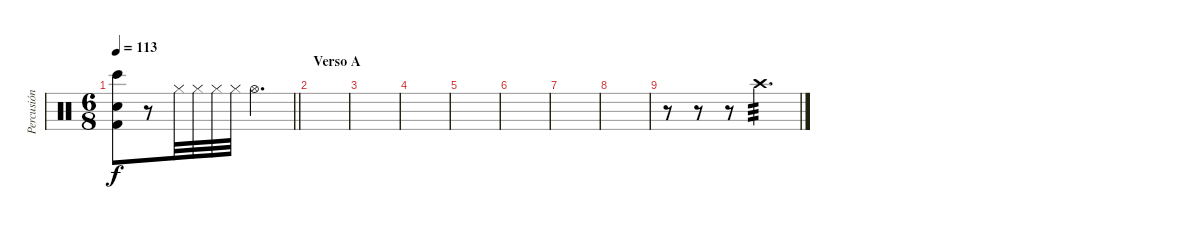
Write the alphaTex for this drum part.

\track ("Percusión" "Percusión") {instrument percussion}
\staff {score}
\articulation defaults
\ts (6 8)
\tempo 113
\clef neutral
\barLineRight lightlight
\ks c
("Bongo High (hit)" "Electric Snare (hit)" "Kick (hit) 2").8{dy f} r.8 "Hi-Hat (closed)".32 "Hi-Hat (closed)".32 "Hi-Hat (closed)".32 "Hi-Hat (closed)".32 "Hi-Hat (open)".4{d} |
\section ("" "Verso A")
|
|
|
|
|
|
|
r.8 r.8 r.8{volume 0} "Crash high (hit)".4{d tp 3 volume 13}
